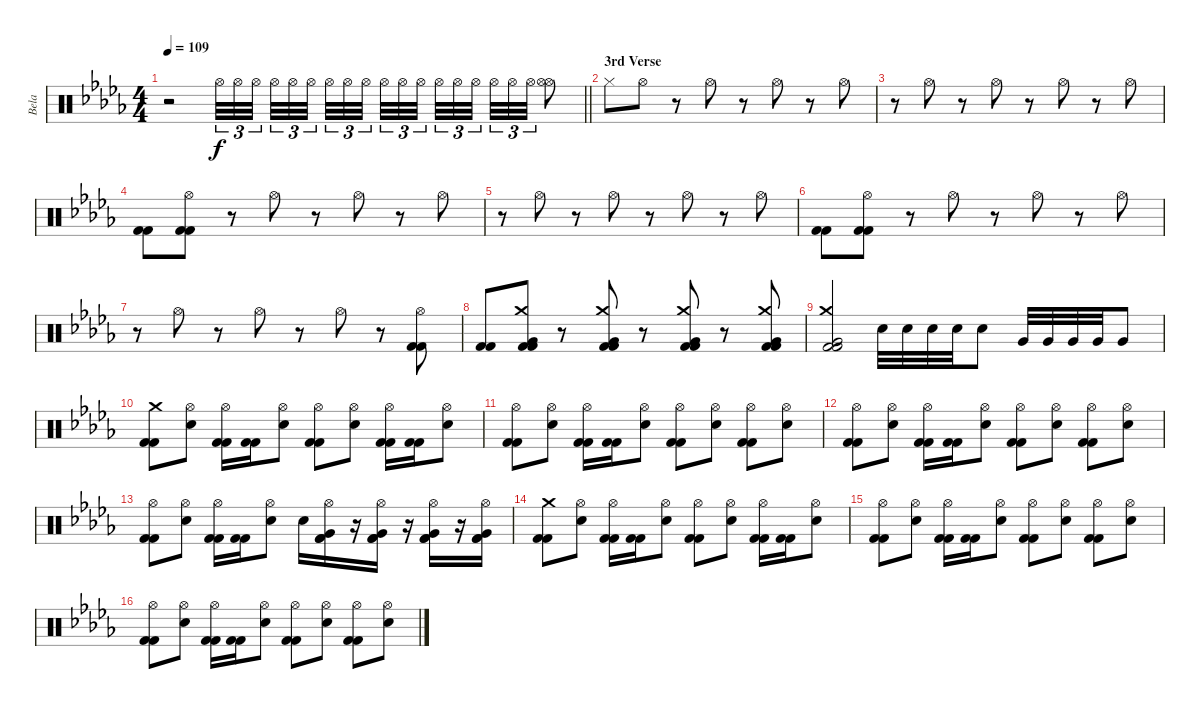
\track ("Bela" "Bela") {instrument percussion}
\staff {score}
\articulation defaults
\ts (4 4)
\tempo 109
\clef neutral
\barLineRight lightlight
\ks bbminor
r.2{dy f volume 0} "Hi-Hat (open)".32{tu (3 2) volume 13} "Hi-Hat (open)".32{tu (3 2)} "Hi-Hat (open)".32{tu (3 2) beam splitsecondary} "Hi-Hat (open)".32{tu (3 2)} "Hi-Hat (open)".32{tu (3 2)} "Hi-Hat (open)".32{tu (3 2) beam splitsecondary} "Hi-Hat (open)".32{tu (3 2)} "Hi-Hat (open)".32{tu (3 2)} "Hi-Hat (open)".32{tu (3 2) beam splitsecondary} "Hi-Hat (open)".32{tu (3 2)} "Hi-Hat (open)".32{tu (3 2)} "Hi-Hat (open)".32{tu (3 2)} "Hi-Hat (open)".32{tu (3 2)} "Hi-Hat (open)".32{tu (3 2)} "Hi-Hat (open)".32{tu (3 2) beam splitsecondary} "Hi-Hat (open)".32{tu (3 2)} "Hi-Hat (open)".32{tu (3 2)} "Hi-Hat (open)".32{tu (3 2)} ("Hi-Hat (open)" "Hi-Hat (open)").8 |
\section ("" "3rd Verse")
"Hi-Hat (closed)".8 "Hi-Hat (open)".8 r.8 "Hi-Hat (open)".8 r.8 "Hi-Hat (open)".8 r.8 "Hi-Hat (open)".8 |
r.8 "Hi-Hat (open)".8 r.8 "Hi-Hat (open)".8 r.8 "Hi-Hat (open)".8 r.8 "Hi-Hat (open)".8 |
("Kick (hit) 2" "Kick (hit) 2").8 ("Hi-Hat (open)" "Kick (hit) 2" "Kick (hit) 2").8 r.8 "Hi-Hat (open)".8 r.8 "Hi-Hat (open)".8 r.8 "Hi-Hat (open)".8 |
r.8 "Hi-Hat (open)".8 r.8 "Hi-Hat (open)".8 r.8 "Hi-Hat (open)".8 r.8 "Hi-Hat (open)".8 |
("Kick (hit) 2" "Kick (hit) 2").8 ("Hi-Hat (open)" "Kick (hit) 2" "Kick (hit) 2").8 r.8 "Hi-Hat (open)".8 r.8 "Hi-Hat (open)".8 r.8 "Hi-Hat (open)".8 |
r.8 "Hi-Hat (open)".8 r.8 "Hi-Hat (open)".8 r.8 "Hi-Hat (open)".8 r.8 ("Hi-Hat (open)" "Kick (hit) 2" "Kick (hit) 2").8 |
("Kick (hit) 2" "Kick (hit) 2").8 ("Crash medium (hit)" "Very Low Tom (hit)" "Kick (hit) 2" "Kick (hit) 2").8 r.8 ("Crash medium (hit)" "Very Low Tom (hit)" "Kick (hit) 2" "Kick (hit) 2").8 r.8 ("Crash medium (hit)" "Very Low Tom (hit)" "Kick (hit) 2" "Kick (hit) 2").8 r.8 ("Crash medium (hit)" "Very Low Tom (hit)" "Kick (hit) 2" "Kick (hit) 2").8 |
("Crash medium (hit)" "Very Low Tom (hit)" "Kick (hit) 2" "Kick (hit) 2").2 "Snare (hit) 2".32 "Snare (hit) 2".32 "Snare (hit) 2".32 "Snare (hit) 2".32 "Snare (hit) 2".8 "Very Low Tom (hit)".32 "Very Low Tom (hit)".32 "Very Low Tom (hit)".32 "Very Low Tom (hit)".32 "Very Low Tom (hit)".8 |
("Crash medium (hit)" "Kick (hit) 2" "Kick (hit) 2").8 ("Hi-Hat (open)" "Snare (hit) 2").8 ("Hi-Hat (open)" "Kick (hit) 2" "Kick (hit) 2").16 ("Kick (hit) 2" "Kick (hit) 2").16 ("Hi-Hat (open)" "Snare (hit) 2").8 ("Hi-Hat (open)" "Kick (hit) 2" "Kick (hit) 2").8 ("Hi-Hat (open)" "Snare (hit) 2").8 ("Hi-Hat (open)" "Kick (hit) 2" "Kick (hit) 2").16 ("Kick (hit) 2" "Kick (hit) 2").16 ("Hi-Hat (open)" "Snare (hit) 2").8 |
("Hi-Hat (open)" "Kick (hit) 2" "Kick (hit) 2").8 ("Hi-Hat (open)" "Snare (hit) 2").8 ("Hi-Hat (open)" "Kick (hit) 2" "Kick (hit) 2").16 ("Kick (hit) 2" "Kick (hit) 2").16 ("Hi-Hat (open)" "Snare (hit) 2").8 ("Hi-Hat (open)" "Kick (hit) 2" "Kick (hit) 2").8 ("Hi-Hat (open)" "Snare (hit) 2").8 ("Hi-Hat (open)" "Kick (hit) 2" "Kick (hit) 2").8 ("Hi-Hat (open)" "Snare (hit) 2").8 |
("Hi-Hat (open)" "Kick (hit) 2" "Kick (hit) 2").8 ("Hi-Hat (open)" "Snare (hit) 2").8 ("Hi-Hat (open)" "Kick (hit) 2" "Kick (hit) 2").16 ("Kick (hit) 2" "Kick (hit) 2").16 ("Hi-Hat (open)" "Snare (hit) 2").8 ("Hi-Hat (open)" "Kick (hit) 2" "Kick (hit) 2").8 ("Hi-Hat (open)" "Snare (hit) 2").8 ("Hi-Hat (open)" "Kick (hit) 2" "Kick (hit) 2").8 ("Hi-Hat (open)" "Snare (hit) 2").8 |
("Hi-Hat (open)" "Kick (hit) 2" "Kick (hit) 2").8 ("Hi-Hat (open)" "Snare (hit) 2").8 ("Hi-Hat (open)" "Kick (hit) 2" "Kick (hit) 2").16 ("Kick (hit) 2" "Kick (hit) 2").16 ("Hi-Hat (open)" "Snare (hit) 2").8 "Snare (hit) 2".16 ("Hi-Hat (open)" "Very Low Tom (hit)" "Kick (hit) 2" "Kick (hit) 2").16 r.16 ("Hi-Hat (open)" "Very Low Tom (hit)" "Kick (hit) 2" "Kick (hit) 2").16 r.16 ("Hi-Hat (open)" "Very Low Tom (hit)" "Kick (hit) 2" "Kick (hit) 2").16 r.16 ("Hi-Hat (open)" "Very Low Tom (hit)" "Kick (hit) 2" "Kick (hit) 2").16 |
("Crash medium (hit)" "Kick (hit) 2" "Kick (hit) 2").8 ("Hi-Hat (open)" "Snare (hit) 2").8 ("Hi-Hat (open)" "Kick (hit) 2" "Kick (hit) 2").16 ("Kick (hit) 2" "Kick (hit) 2").16 ("Hi-Hat (open)" "Snare (hit) 2").8 ("Hi-Hat (open)" "Kick (hit) 2" "Kick (hit) 2").8 ("Hi-Hat (open)" "Snare (hit) 2").8 ("Hi-Hat (open)" "Kick (hit) 2" "Kick (hit) 2").16 ("Kick (hit) 2" "Kick (hit) 2").16 ("Hi-Hat (open)" "Snare (hit) 2").8 |
("Hi-Hat (open)" "Kick (hit) 2" "Kick (hit) 2").8 ("Hi-Hat (open)" "Snare (hit) 2").8 ("Hi-Hat (open)" "Kick (hit) 2" "Kick (hit) 2").16 ("Kick (hit) 2" "Kick (hit) 2").16 ("Hi-Hat (open)" "Snare (hit) 2").8 ("Hi-Hat (open)" "Kick (hit) 2" "Kick (hit) 2").8 ("Hi-Hat (open)" "Snare (hit) 2").8 ("Hi-Hat (open)" "Kick (hit) 2" "Kick (hit) 2").8 ("Hi-Hat (open)" "Snare (hit) 2").8 |
("Hi-Hat (open)" "Kick (hit) 2" "Kick (hit) 2").8 ("Hi-Hat (open)" "Snare (hit) 2").8 ("Hi-Hat (open)" "Kick (hit) 2" "Kick (hit) 2").16 ("Kick (hit) 2" "Kick (hit) 2").16 ("Hi-Hat (open)" "Snare (hit) 2").8 ("Hi-Hat (open)" "Kick (hit) 2" "Kick (hit) 2").8 ("Hi-Hat (open)" "Snare (hit) 2").8 ("Hi-Hat (open)" "Kick (hit) 2" "Kick (hit) 2").8 ("Hi-Hat (open)" "Snare (hit) 2").8
